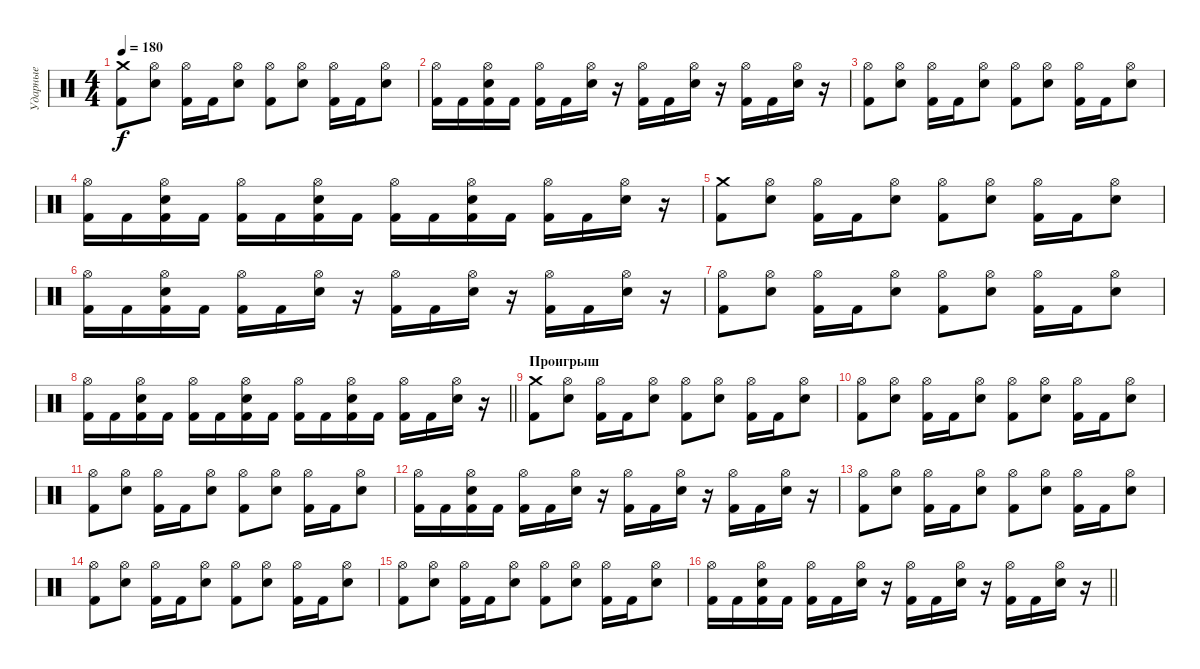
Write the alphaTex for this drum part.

\track ("Ударные" "Ударные") {instrument percussion}
\staff {score}
\articulation defaults
\ts (4 4)
\tempo 180
\clef neutral
\ks c
("Crash medium (hit)" "Kick (hit) 2").8{dy f} ("Hi-Hat (open)" "Electric Snare (hit)").8 ("Hi-Hat (open)" "Kick (hit) 2").16 "Kick (hit) 2".16 ("Hi-Hat (open)" "Electric Snare (hit)").8 ("Hi-Hat (open)" "Kick (hit) 2").8 ("Hi-Hat (open)" "Electric Snare (hit)").8 ("Hi-Hat (open)" "Kick (hit) 2").16 "Kick (hit) 2".16 ("Hi-Hat (open)" "Electric Snare (hit)").8 |
("Hi-Hat (open)" "Kick (hit) 2").16 "Kick (hit) 2".16 ("Hi-Hat (open)" "Electric Snare (hit)" "Kick (hit) 2").16 "Kick (hit) 2".16 ("Hi-Hat (open)" "Kick (hit) 2").16 "Kick (hit) 2".16 ("Hi-Hat (open)" "Electric Snare (hit)").16 r.16 ("Hi-Hat (open)" "Kick (hit) 2").16 "Kick (hit) 2".16 ("Hi-Hat (open)" "Electric Snare (hit)").16 r.16 ("Hi-Hat (open)" "Kick (hit) 2").16 "Kick (hit) 2".16 ("Hi-Hat (open)" "Electric Snare (hit)").16 r.16 |
("Hi-Hat (open)" "Kick (hit) 2").8 ("Hi-Hat (open)" "Electric Snare (hit)").8 ("Hi-Hat (open)" "Kick (hit) 2").16 "Kick (hit) 2".16 ("Hi-Hat (open)" "Electric Snare (hit)").8 ("Hi-Hat (open)" "Kick (hit) 2").8 ("Hi-Hat (open)" "Electric Snare (hit)").8 ("Hi-Hat (open)" "Kick (hit) 2").16 "Kick (hit) 2".16 ("Hi-Hat (open)" "Electric Snare (hit)").8 |
("Hi-Hat (open)" "Kick (hit) 2").16 "Kick (hit) 2".16 ("Hi-Hat (open)" "Electric Snare (hit)" "Kick (hit) 2").16 "Kick (hit) 2".16 ("Hi-Hat (open)" "Kick (hit) 2").16 "Kick (hit) 2".16 ("Hi-Hat (open)" "Electric Snare (hit)" "Kick (hit) 2").16 "Kick (hit) 2".16 ("Hi-Hat (open)" "Kick (hit) 2").16 "Kick (hit) 2".16 ("Hi-Hat (open)" "Electric Snare (hit)" "Kick (hit) 2").16 "Kick (hit) 2".16 ("Hi-Hat (open)" "Kick (hit) 2").16 "Kick (hit) 2".16 ("Hi-Hat (open)" "Electric Snare (hit)").16 r.16 |
("Crash medium (hit)" "Kick (hit) 2").8 ("Hi-Hat (open)" "Electric Snare (hit)").8 ("Hi-Hat (open)" "Kick (hit) 2").16 "Kick (hit) 2".16 ("Hi-Hat (open)" "Electric Snare (hit)").8 ("Hi-Hat (open)" "Kick (hit) 2").8 ("Hi-Hat (open)" "Electric Snare (hit)").8 ("Hi-Hat (open)" "Kick (hit) 2").16 "Kick (hit) 2".16 ("Hi-Hat (open)" "Electric Snare (hit)").8 |
("Hi-Hat (open)" "Kick (hit) 2").16 "Kick (hit) 2".16 ("Hi-Hat (open)" "Electric Snare (hit)" "Kick (hit) 2").16 "Kick (hit) 2".16 ("Hi-Hat (open)" "Kick (hit) 2").16 "Kick (hit) 2".16 ("Hi-Hat (open)" "Electric Snare (hit)").16 r.16 ("Hi-Hat (open)" "Kick (hit) 2").16 "Kick (hit) 2".16 ("Hi-Hat (open)" "Electric Snare (hit)").16 r.16 ("Hi-Hat (open)" "Kick (hit) 2").16 "Kick (hit) 2".16 ("Hi-Hat (open)" "Electric Snare (hit)").16 r.16 |
("Hi-Hat (open)" "Kick (hit) 2").8 ("Hi-Hat (open)" "Electric Snare (hit)").8 ("Hi-Hat (open)" "Kick (hit) 2").16 "Kick (hit) 2".16 ("Hi-Hat (open)" "Electric Snare (hit)").8 ("Hi-Hat (open)" "Kick (hit) 2").8 ("Hi-Hat (open)" "Electric Snare (hit)").8 ("Hi-Hat (open)" "Kick (hit) 2").16 "Kick (hit) 2".16 ("Hi-Hat (open)" "Electric Snare (hit)").8 |
\barLineRight lightlight
("Hi-Hat (open)" "Kick (hit) 2").16 "Kick (hit) 2".16 ("Hi-Hat (open)" "Electric Snare (hit)" "Kick (hit) 2").16 "Kick (hit) 2".16 ("Hi-Hat (open)" "Kick (hit) 2").16 "Kick (hit) 2".16 ("Hi-Hat (open)" "Electric Snare (hit)" "Kick (hit) 2").16 "Kick (hit) 2".16 ("Hi-Hat (open)" "Kick (hit) 2").16 "Kick (hit) 2".16 ("Hi-Hat (open)" "Electric Snare (hit)" "Kick (hit) 2").16 "Kick (hit) 2".16 ("Hi-Hat (open)" "Kick (hit) 2").16 "Kick (hit) 2".16 ("Hi-Hat (open)" "Electric Snare (hit)").16 r.16 |
\section ("" "Проигрыш")
("Crash medium (hit)" "Kick (hit) 2").8 ("Hi-Hat (open)" "Electric Snare (hit)").8 ("Hi-Hat (open)" "Kick (hit) 2").16 "Kick (hit) 2".16 ("Hi-Hat (open)" "Electric Snare (hit)").8 ("Hi-Hat (open)" "Kick (hit) 2").8 ("Hi-Hat (open)" "Electric Snare (hit)").8 ("Hi-Hat (open)" "Kick (hit) 2").16 "Kick (hit) 2".16 ("Hi-Hat (open)" "Electric Snare (hit)").8 |
("Hi-Hat (open)" "Kick (hit) 2").8 ("Hi-Hat (open)" "Electric Snare (hit)").8 ("Hi-Hat (open)" "Kick (hit) 2").16 "Kick (hit) 2".16 ("Hi-Hat (open)" "Electric Snare (hit)").8 ("Hi-Hat (open)" "Kick (hit) 2").8 ("Hi-Hat (open)" "Electric Snare (hit)").8 ("Hi-Hat (open)" "Kick (hit) 2").16 "Kick (hit) 2".16 ("Hi-Hat (open)" "Electric Snare (hit)").8 |
("Hi-Hat (open)" "Kick (hit) 2").8 ("Hi-Hat (open)" "Electric Snare (hit)").8 ("Hi-Hat (open)" "Kick (hit) 2").16 "Kick (hit) 2".16 ("Hi-Hat (open)" "Electric Snare (hit)").8 ("Hi-Hat (open)" "Kick (hit) 2").8 ("Hi-Hat (open)" "Electric Snare (hit)").8 ("Hi-Hat (open)" "Kick (hit) 2").16 "Kick (hit) 2".16 ("Hi-Hat (open)" "Electric Snare (hit)").8 |
("Hi-Hat (open)" "Kick (hit) 2").16 "Kick (hit) 2".16 ("Hi-Hat (open)" "Electric Snare (hit)" "Kick (hit) 2").16 "Kick (hit) 2".16 ("Hi-Hat (open)" "Kick (hit) 2").16 "Kick (hit) 2".16 ("Hi-Hat (open)" "Electric Snare (hit)").16 r.16 ("Hi-Hat (open)" "Kick (hit) 2").16 "Kick (hit) 2".16 ("Hi-Hat (open)" "Electric Snare (hit)").16 r.16 ("Hi-Hat (open)" "Kick (hit) 2").16 "Kick (hit) 2".16 ("Hi-Hat (open)" "Electric Snare (hit)").16 r.16 |
("Hi-Hat (open)" "Kick (hit) 2").8 ("Hi-Hat (open)" "Electric Snare (hit)").8 ("Hi-Hat (open)" "Kick (hit) 2").16 "Kick (hit) 2".16 ("Hi-Hat (open)" "Electric Snare (hit)").8 ("Hi-Hat (open)" "Kick (hit) 2").8 ("Hi-Hat (open)" "Electric Snare (hit)").8 ("Hi-Hat (open)" "Kick (hit) 2").16 "Kick (hit) 2".16 ("Hi-Hat (open)" "Electric Snare (hit)").8 |
("Hi-Hat (open)" "Kick (hit) 2").8 ("Hi-Hat (open)" "Electric Snare (hit)").8 ("Hi-Hat (open)" "Kick (hit) 2").16 "Kick (hit) 2".16 ("Hi-Hat (open)" "Electric Snare (hit)").8 ("Hi-Hat (open)" "Kick (hit) 2").8 ("Hi-Hat (open)" "Electric Snare (hit)").8 ("Hi-Hat (open)" "Kick (hit) 2").16 "Kick (hit) 2".16 ("Hi-Hat (open)" "Electric Snare (hit)").8 |
("Hi-Hat (open)" "Kick (hit) 2").8 ("Hi-Hat (open)" "Electric Snare (hit)").8 ("Hi-Hat (open)" "Kick (hit) 2").16 "Kick (hit) 2".16 ("Hi-Hat (open)" "Electric Snare (hit)").8 ("Hi-Hat (open)" "Kick (hit) 2").8 ("Hi-Hat (open)" "Electric Snare (hit)").8 ("Hi-Hat (open)" "Kick (hit) 2").16 "Kick (hit) 2".16 ("Hi-Hat (open)" "Electric Snare (hit)").8 |
\barLineRight lightlight
("Hi-Hat (open)" "Kick (hit) 2").16 "Kick (hit) 2".16 ("Hi-Hat (open)" "Electric Snare (hit)" "Kick (hit) 2").16 "Kick (hit) 2".16 ("Hi-Hat (open)" "Kick (hit) 2").16 "Kick (hit) 2".16 ("Hi-Hat (open)" "Electric Snare (hit)").16 r.16 ("Hi-Hat (open)" "Kick (hit) 2").16 "Kick (hit) 2".16 ("Hi-Hat (open)" "Electric Snare (hit)").16 r.16 ("Hi-Hat (open)" "Kick (hit) 2").16 "Kick (hit) 2".16 ("Hi-Hat (open)" "Electric Snare (hit)").16 r.16
